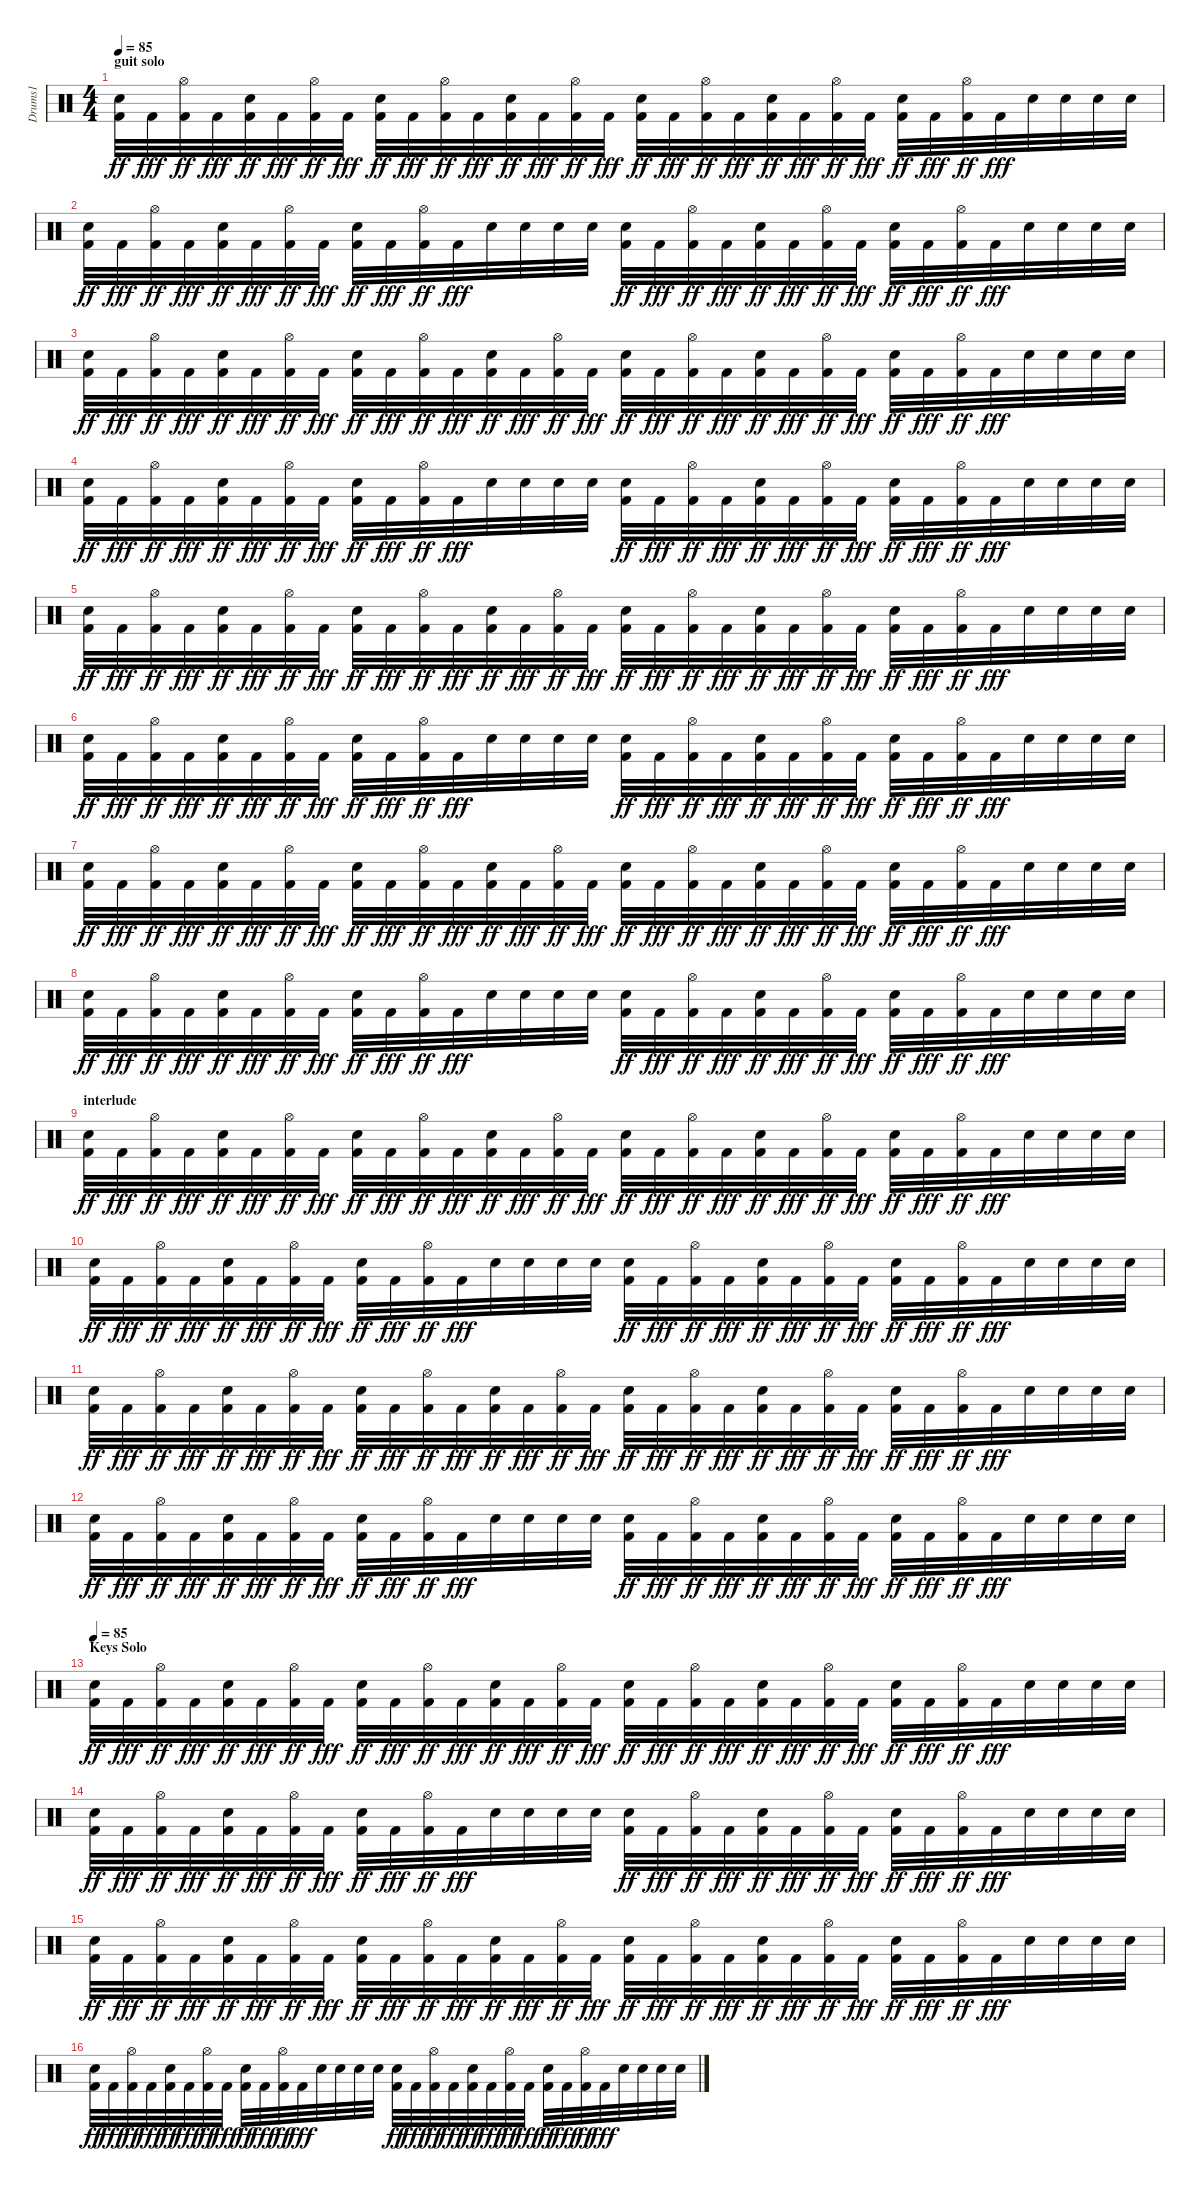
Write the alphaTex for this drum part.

\track ("Drums1" "Drums1") {instrument percussion}
\staff {score}
\articulation defaults
\ts (4 4)
\section ("" "guit solo")
\tempo 85
\clef neutral
\ks c
("Kick (hit) 2" "Electric Snare (hit)").32{dy ff} "Kick (hit) 2".32{dy fff} ("Kick (hit) 2" "Hi-Hat (open)").32{dy ff} "Kick (hit) 2".32{dy fff} ("Kick (hit) 2" "Electric Snare (hit)").32{dy ff} "Kick (hit) 2".32{dy fff} ("Kick (hit) 2" "Hi-Hat (open)").32{dy ff} "Kick (hit) 2".32{dy fff} ("Kick (hit) 2" "Electric Snare (hit)").32{dy ff} "Kick (hit) 2".32{dy fff} ("Kick (hit) 2" "Hi-Hat (open)").32{dy ff} "Kick (hit) 2".32{dy fff} ("Kick (hit) 2" "Electric Snare (hit)").32{dy ff} "Kick (hit) 2".32{dy fff} ("Kick (hit) 2" "Hi-Hat (open)").32{dy ff} "Kick (hit) 2".32{dy fff} ("Kick (hit) 2" "Electric Snare (hit)").32{dy ff} "Kick (hit) 2".32{dy fff} ("Kick (hit) 2" "Hi-Hat (open)").32{dy ff} "Kick (hit) 2".32{dy fff} ("Kick (hit) 2" "Electric Snare (hit)").32{dy ff} "Kick (hit) 2".32{dy fff} ("Kick (hit) 2" "Hi-Hat (open)").32{dy ff} "Kick (hit) 2".32{dy fff} ("Kick (hit) 2" "Electric Snare (hit)").32{dy ff} "Kick (hit) 2".32{dy fff} ("Kick (hit) 2" "Hi-Hat (open)").32{dy ff} "Kick (hit) 2".32{dy fff} "Electric Snare (hit)".32 "Electric Snare (hit)".32 "Electric Snare (hit)".32 "Electric Snare (hit)".32 |
("Kick (hit) 2" "Electric Snare (hit)").32{dy ff} "Kick (hit) 2".32{dy fff} ("Kick (hit) 2" "Hi-Hat (open)").32{dy ff} "Kick (hit) 2".32{dy fff} ("Kick (hit) 2" "Electric Snare (hit)").32{dy ff} "Kick (hit) 2".32{dy fff} ("Kick (hit) 2" "Hi-Hat (open)").32{dy ff} "Kick (hit) 2".32{dy fff} ("Kick (hit) 2" "Electric Snare (hit)").32{dy ff} "Kick (hit) 2".32{dy fff} ("Kick (hit) 2" "Hi-Hat (open)").32{dy ff} "Kick (hit) 2".32{dy fff} "Electric Snare (hit)".32 "Electric Snare (hit)".32 "Electric Snare (hit)".32 "Electric Snare (hit)".32 ("Kick (hit) 2" "Electric Snare (hit)").32{dy ff} "Kick (hit) 2".32{dy fff} ("Kick (hit) 2" "Hi-Hat (open)").32{dy ff} "Kick (hit) 2".32{dy fff} ("Kick (hit) 2" "Electric Snare (hit)").32{dy ff} "Kick (hit) 2".32{dy fff} ("Kick (hit) 2" "Hi-Hat (open)").32{dy ff} "Kick (hit) 2".32{dy fff} ("Kick (hit) 2" "Electric Snare (hit)").32{dy ff} "Kick (hit) 2".32{dy fff} ("Kick (hit) 2" "Hi-Hat (open)").32{dy ff} "Kick (hit) 2".32{dy fff} "Electric Snare (hit)".32 "Electric Snare (hit)".32 "Electric Snare (hit)".32 "Electric Snare (hit)".32 |
("Kick (hit) 2" "Electric Snare (hit)").32{dy ff} "Kick (hit) 2".32{dy fff} ("Kick (hit) 2" "Hi-Hat (open)").32{dy ff} "Kick (hit) 2".32{dy fff} ("Kick (hit) 2" "Electric Snare (hit)").32{dy ff} "Kick (hit) 2".32{dy fff} ("Kick (hit) 2" "Hi-Hat (open)").32{dy ff} "Kick (hit) 2".32{dy fff} ("Kick (hit) 2" "Electric Snare (hit)").32{dy ff} "Kick (hit) 2".32{dy fff} ("Kick (hit) 2" "Hi-Hat (open)").32{dy ff} "Kick (hit) 2".32{dy fff} ("Kick (hit) 2" "Electric Snare (hit)").32{dy ff} "Kick (hit) 2".32{dy fff} ("Kick (hit) 2" "Hi-Hat (open)").32{dy ff} "Kick (hit) 2".32{dy fff} ("Kick (hit) 2" "Electric Snare (hit)").32{dy ff} "Kick (hit) 2".32{dy fff} ("Kick (hit) 2" "Hi-Hat (open)").32{dy ff} "Kick (hit) 2".32{dy fff} ("Kick (hit) 2" "Electric Snare (hit)").32{dy ff} "Kick (hit) 2".32{dy fff} ("Kick (hit) 2" "Hi-Hat (open)").32{dy ff} "Kick (hit) 2".32{dy fff} ("Kick (hit) 2" "Electric Snare (hit)").32{dy ff} "Kick (hit) 2".32{dy fff} ("Kick (hit) 2" "Hi-Hat (open)").32{dy ff} "Kick (hit) 2".32{dy fff} "Electric Snare (hit)".32 "Electric Snare (hit)".32 "Electric Snare (hit)".32 "Electric Snare (hit)".32 |
("Kick (hit) 2" "Electric Snare (hit)").32{dy ff} "Kick (hit) 2".32{dy fff} ("Kick (hit) 2" "Hi-Hat (open)").32{dy ff} "Kick (hit) 2".32{dy fff} ("Kick (hit) 2" "Electric Snare (hit)").32{dy ff} "Kick (hit) 2".32{dy fff} ("Kick (hit) 2" "Hi-Hat (open)").32{dy ff} "Kick (hit) 2".32{dy fff} ("Kick (hit) 2" "Electric Snare (hit)").32{dy ff} "Kick (hit) 2".32{dy fff} ("Kick (hit) 2" "Hi-Hat (open)").32{dy ff} "Kick (hit) 2".32{dy fff} "Electric Snare (hit)".32 "Electric Snare (hit)".32 "Electric Snare (hit)".32 "Electric Snare (hit)".32 ("Kick (hit) 2" "Electric Snare (hit)").32{dy ff} "Kick (hit) 2".32{dy fff} ("Kick (hit) 2" "Hi-Hat (open)").32{dy ff} "Kick (hit) 2".32{dy fff} ("Kick (hit) 2" "Electric Snare (hit)").32{dy ff} "Kick (hit) 2".32{dy fff} ("Kick (hit) 2" "Hi-Hat (open)").32{dy ff} "Kick (hit) 2".32{dy fff} ("Kick (hit) 2" "Electric Snare (hit)").32{dy ff} "Kick (hit) 2".32{dy fff} ("Kick (hit) 2" "Hi-Hat (open)").32{dy ff} "Kick (hit) 2".32{dy fff} "Electric Snare (hit)".32 "Electric Snare (hit)".32 "Electric Snare (hit)".32 "Electric Snare (hit)".32 |
("Kick (hit) 2" "Electric Snare (hit)").32{dy ff} "Kick (hit) 2".32{dy fff} ("Kick (hit) 2" "Hi-Hat (open)").32{dy ff} "Kick (hit) 2".32{dy fff} ("Kick (hit) 2" "Electric Snare (hit)").32{dy ff} "Kick (hit) 2".32{dy fff} ("Kick (hit) 2" "Hi-Hat (open)").32{dy ff} "Kick (hit) 2".32{dy fff} ("Kick (hit) 2" "Electric Snare (hit)").32{dy ff} "Kick (hit) 2".32{dy fff} ("Kick (hit) 2" "Hi-Hat (open)").32{dy ff} "Kick (hit) 2".32{dy fff} ("Kick (hit) 2" "Electric Snare (hit)").32{dy ff} "Kick (hit) 2".32{dy fff} ("Kick (hit) 2" "Hi-Hat (open)").32{dy ff} "Kick (hit) 2".32{dy fff} ("Kick (hit) 2" "Electric Snare (hit)").32{dy ff} "Kick (hit) 2".32{dy fff} ("Kick (hit) 2" "Hi-Hat (open)").32{dy ff} "Kick (hit) 2".32{dy fff} ("Kick (hit) 2" "Electric Snare (hit)").32{dy ff} "Kick (hit) 2".32{dy fff} ("Kick (hit) 2" "Hi-Hat (open)").32{dy ff} "Kick (hit) 2".32{dy fff} ("Kick (hit) 2" "Electric Snare (hit)").32{dy ff} "Kick (hit) 2".32{dy fff} ("Kick (hit) 2" "Hi-Hat (open)").32{dy ff} "Kick (hit) 2".32{dy fff} "Electric Snare (hit)".32 "Electric Snare (hit)".32 "Electric Snare (hit)".32 "Electric Snare (hit)".32 |
("Kick (hit) 2" "Electric Snare (hit)").32{dy ff} "Kick (hit) 2".32{dy fff} ("Kick (hit) 2" "Hi-Hat (open)").32{dy ff} "Kick (hit) 2".32{dy fff} ("Kick (hit) 2" "Electric Snare (hit)").32{dy ff} "Kick (hit) 2".32{dy fff} ("Kick (hit) 2" "Hi-Hat (open)").32{dy ff} "Kick (hit) 2".32{dy fff} ("Kick (hit) 2" "Electric Snare (hit)").32{dy ff} "Kick (hit) 2".32{dy fff} ("Kick (hit) 2" "Hi-Hat (open)").32{dy ff} "Kick (hit) 2".32{dy fff} "Electric Snare (hit)".32 "Electric Snare (hit)".32 "Electric Snare (hit)".32 "Electric Snare (hit)".32 ("Kick (hit) 2" "Electric Snare (hit)").32{dy ff} "Kick (hit) 2".32{dy fff} ("Kick (hit) 2" "Hi-Hat (open)").32{dy ff} "Kick (hit) 2".32{dy fff} ("Kick (hit) 2" "Electric Snare (hit)").32{dy ff} "Kick (hit) 2".32{dy fff} ("Kick (hit) 2" "Hi-Hat (open)").32{dy ff} "Kick (hit) 2".32{dy fff} ("Kick (hit) 2" "Electric Snare (hit)").32{dy ff} "Kick (hit) 2".32{dy fff} ("Kick (hit) 2" "Hi-Hat (open)").32{dy ff} "Kick (hit) 2".32{dy fff} "Electric Snare (hit)".32 "Electric Snare (hit)".32 "Electric Snare (hit)".32 "Electric Snare (hit)".32 |
("Kick (hit) 2" "Electric Snare (hit)").32{dy ff} "Kick (hit) 2".32{dy fff} ("Kick (hit) 2" "Hi-Hat (open)").32{dy ff} "Kick (hit) 2".32{dy fff} ("Kick (hit) 2" "Electric Snare (hit)").32{dy ff} "Kick (hit) 2".32{dy fff} ("Kick (hit) 2" "Hi-Hat (open)").32{dy ff} "Kick (hit) 2".32{dy fff} ("Kick (hit) 2" "Electric Snare (hit)").32{dy ff} "Kick (hit) 2".32{dy fff} ("Kick (hit) 2" "Hi-Hat (open)").32{dy ff} "Kick (hit) 2".32{dy fff} ("Kick (hit) 2" "Electric Snare (hit)").32{dy ff} "Kick (hit) 2".32{dy fff} ("Kick (hit) 2" "Hi-Hat (open)").32{dy ff} "Kick (hit) 2".32{dy fff} ("Kick (hit) 2" "Electric Snare (hit)").32{dy ff} "Kick (hit) 2".32{dy fff} ("Kick (hit) 2" "Hi-Hat (open)").32{dy ff} "Kick (hit) 2".32{dy fff} ("Kick (hit) 2" "Electric Snare (hit)").32{dy ff} "Kick (hit) 2".32{dy fff} ("Kick (hit) 2" "Hi-Hat (open)").32{dy ff} "Kick (hit) 2".32{dy fff} ("Kick (hit) 2" "Electric Snare (hit)").32{dy ff} "Kick (hit) 2".32{dy fff} ("Kick (hit) 2" "Hi-Hat (open)").32{dy ff} "Kick (hit) 2".32{dy fff} "Electric Snare (hit)".32 "Electric Snare (hit)".32 "Electric Snare (hit)".32 "Electric Snare (hit)".32 |
("Kick (hit) 2" "Electric Snare (hit)").32{dy ff} "Kick (hit) 2".32{dy fff} ("Kick (hit) 2" "Hi-Hat (open)").32{dy ff} "Kick (hit) 2".32{dy fff} ("Kick (hit) 2" "Electric Snare (hit)").32{dy ff} "Kick (hit) 2".32{dy fff} ("Kick (hit) 2" "Hi-Hat (open)").32{dy ff} "Kick (hit) 2".32{dy fff} ("Kick (hit) 2" "Electric Snare (hit)").32{dy ff} "Kick (hit) 2".32{dy fff} ("Kick (hit) 2" "Hi-Hat (open)").32{dy ff} "Kick (hit) 2".32{dy fff} "Electric Snare (hit)".32 "Electric Snare (hit)".32 "Electric Snare (hit)".32 "Electric Snare (hit)".32 ("Kick (hit) 2" "Electric Snare (hit)").32{dy ff} "Kick (hit) 2".32{dy fff} ("Kick (hit) 2" "Hi-Hat (open)").32{dy ff} "Kick (hit) 2".32{dy fff} ("Kick (hit) 2" "Electric Snare (hit)").32{dy ff} "Kick (hit) 2".32{dy fff} ("Kick (hit) 2" "Hi-Hat (open)").32{dy ff} "Kick (hit) 2".32{dy fff} ("Kick (hit) 2" "Electric Snare (hit)").32{dy ff} "Kick (hit) 2".32{dy fff} ("Kick (hit) 2" "Hi-Hat (open)").32{dy ff} "Kick (hit) 2".32{dy fff} "Electric Snare (hit)".32 "Electric Snare (hit)".32 "Electric Snare (hit)".32 "Electric Snare (hit)".32 |
\section ("" "interlude")
("Kick (hit) 2" "Electric Snare (hit)").32{dy ff} "Kick (hit) 2".32{dy fff} ("Kick (hit) 2" "Hi-Hat (open)").32{dy ff} "Kick (hit) 2".32{dy fff} ("Kick (hit) 2" "Electric Snare (hit)").32{dy ff} "Kick (hit) 2".32{dy fff} ("Kick (hit) 2" "Hi-Hat (open)").32{dy ff} "Kick (hit) 2".32{dy fff} ("Kick (hit) 2" "Electric Snare (hit)").32{dy ff} "Kick (hit) 2".32{dy fff} ("Kick (hit) 2" "Hi-Hat (open)").32{dy ff} "Kick (hit) 2".32{dy fff} ("Kick (hit) 2" "Electric Snare (hit)").32{dy ff} "Kick (hit) 2".32{dy fff} ("Kick (hit) 2" "Hi-Hat (open)").32{dy ff} "Kick (hit) 2".32{dy fff} ("Kick (hit) 2" "Electric Snare (hit)").32{dy ff} "Kick (hit) 2".32{dy fff} ("Kick (hit) 2" "Hi-Hat (open)").32{dy ff} "Kick (hit) 2".32{dy fff} ("Kick (hit) 2" "Electric Snare (hit)").32{dy ff} "Kick (hit) 2".32{dy fff} ("Kick (hit) 2" "Hi-Hat (open)").32{dy ff} "Kick (hit) 2".32{dy fff} ("Kick (hit) 2" "Electric Snare (hit)").32{dy ff} "Kick (hit) 2".32{dy fff} ("Kick (hit) 2" "Hi-Hat (open)").32{dy ff} "Kick (hit) 2".32{dy fff} "Electric Snare (hit)".32 "Electric Snare (hit)".32 "Electric Snare (hit)".32 "Electric Snare (hit)".32 |
("Kick (hit) 2" "Electric Snare (hit)").32{dy ff} "Kick (hit) 2".32{dy fff} ("Kick (hit) 2" "Hi-Hat (open)").32{dy ff} "Kick (hit) 2".32{dy fff} ("Kick (hit) 2" "Electric Snare (hit)").32{dy ff} "Kick (hit) 2".32{dy fff} ("Kick (hit) 2" "Hi-Hat (open)").32{dy ff} "Kick (hit) 2".32{dy fff} ("Kick (hit) 2" "Electric Snare (hit)").32{dy ff} "Kick (hit) 2".32{dy fff} ("Kick (hit) 2" "Hi-Hat (open)").32{dy ff} "Kick (hit) 2".32{dy fff} "Electric Snare (hit)".32 "Electric Snare (hit)".32 "Electric Snare (hit)".32 "Electric Snare (hit)".32 ("Kick (hit) 2" "Electric Snare (hit)").32{dy ff} "Kick (hit) 2".32{dy fff} ("Kick (hit) 2" "Hi-Hat (open)").32{dy ff} "Kick (hit) 2".32{dy fff} ("Kick (hit) 2" "Electric Snare (hit)").32{dy ff} "Kick (hit) 2".32{dy fff} ("Kick (hit) 2" "Hi-Hat (open)").32{dy ff} "Kick (hit) 2".32{dy fff} ("Kick (hit) 2" "Electric Snare (hit)").32{dy ff} "Kick (hit) 2".32{dy fff} ("Kick (hit) 2" "Hi-Hat (open)").32{dy ff} "Kick (hit) 2".32{dy fff} "Electric Snare (hit)".32 "Electric Snare (hit)".32 "Electric Snare (hit)".32 "Electric Snare (hit)".32 |
("Kick (hit) 2" "Electric Snare (hit)").32{dy ff} "Kick (hit) 2".32{dy fff} ("Kick (hit) 2" "Hi-Hat (open)").32{dy ff} "Kick (hit) 2".32{dy fff} ("Kick (hit) 2" "Electric Snare (hit)").32{dy ff} "Kick (hit) 2".32{dy fff} ("Kick (hit) 2" "Hi-Hat (open)").32{dy ff} "Kick (hit) 2".32{dy fff} ("Kick (hit) 2" "Electric Snare (hit)").32{dy ff} "Kick (hit) 2".32{dy fff} ("Kick (hit) 2" "Hi-Hat (open)").32{dy ff} "Kick (hit) 2".32{dy fff} ("Kick (hit) 2" "Electric Snare (hit)").32{dy ff} "Kick (hit) 2".32{dy fff} ("Kick (hit) 2" "Hi-Hat (open)").32{dy ff} "Kick (hit) 2".32{dy fff} ("Kick (hit) 2" "Electric Snare (hit)").32{dy ff} "Kick (hit) 2".32{dy fff} ("Kick (hit) 2" "Hi-Hat (open)").32{dy ff} "Kick (hit) 2".32{dy fff} ("Kick (hit) 2" "Electric Snare (hit)").32{dy ff} "Kick (hit) 2".32{dy fff} ("Kick (hit) 2" "Hi-Hat (open)").32{dy ff} "Kick (hit) 2".32{dy fff} ("Kick (hit) 2" "Electric Snare (hit)").32{dy ff} "Kick (hit) 2".32{dy fff} ("Kick (hit) 2" "Hi-Hat (open)").32{dy ff} "Kick (hit) 2".32{dy fff} "Electric Snare (hit)".32 "Electric Snare (hit)".32 "Electric Snare (hit)".32 "Electric Snare (hit)".32 |
("Kick (hit) 2" "Electric Snare (hit)").32{dy ff} "Kick (hit) 2".32{dy fff} ("Kick (hit) 2" "Hi-Hat (open)").32{dy ff} "Kick (hit) 2".32{dy fff} ("Kick (hit) 2" "Electric Snare (hit)").32{dy ff} "Kick (hit) 2".32{dy fff} ("Kick (hit) 2" "Hi-Hat (open)").32{dy ff} "Kick (hit) 2".32{dy fff} ("Kick (hit) 2" "Electric Snare (hit)").32{dy ff} "Kick (hit) 2".32{dy fff} ("Kick (hit) 2" "Hi-Hat (open)").32{dy ff} "Kick (hit) 2".32{dy fff} "Electric Snare (hit)".32 "Electric Snare (hit)".32 "Electric Snare (hit)".32 "Electric Snare (hit)".32 ("Kick (hit) 2" "Electric Snare (hit)").32{dy ff} "Kick (hit) 2".32{dy fff} ("Kick (hit) 2" "Hi-Hat (open)").32{dy ff} "Kick (hit) 2".32{dy fff} ("Kick (hit) 2" "Electric Snare (hit)").32{dy ff} "Kick (hit) 2".32{dy fff} ("Kick (hit) 2" "Hi-Hat (open)").32{dy ff} "Kick (hit) 2".32{dy fff} ("Kick (hit) 2" "Electric Snare (hit)").32{dy ff} "Kick (hit) 2".32{dy fff} ("Kick (hit) 2" "Hi-Hat (open)").32{dy ff} "Kick (hit) 2".32{dy fff} "Electric Snare (hit)".32 "Electric Snare (hit)".32 "Electric Snare (hit)".32 "Electric Snare (hit)".32 |
\section ("" "Keys Solo")
\tempo 85
("Kick (hit) 2" "Electric Snare (hit)").32{dy ff} "Kick (hit) 2".32{dy fff} ("Kick (hit) 2" "Hi-Hat (open)").32{dy ff} "Kick (hit) 2".32{dy fff} ("Kick (hit) 2" "Electric Snare (hit)").32{dy ff} "Kick (hit) 2".32{dy fff} ("Kick (hit) 2" "Hi-Hat (open)").32{dy ff} "Kick (hit) 2".32{dy fff} ("Kick (hit) 2" "Electric Snare (hit)").32{dy ff} "Kick (hit) 2".32{dy fff} ("Kick (hit) 2" "Hi-Hat (open)").32{dy ff} "Kick (hit) 2".32{dy fff} ("Kick (hit) 2" "Electric Snare (hit)").32{dy ff} "Kick (hit) 2".32{dy fff} ("Kick (hit) 2" "Hi-Hat (open)").32{dy ff} "Kick (hit) 2".32{dy fff} ("Kick (hit) 2" "Electric Snare (hit)").32{dy ff} "Kick (hit) 2".32{dy fff} ("Kick (hit) 2" "Hi-Hat (open)").32{dy ff} "Kick (hit) 2".32{dy fff} ("Kick (hit) 2" "Electric Snare (hit)").32{dy ff} "Kick (hit) 2".32{dy fff} ("Kick (hit) 2" "Hi-Hat (open)").32{dy ff} "Kick (hit) 2".32{dy fff} ("Kick (hit) 2" "Electric Snare (hit)").32{dy ff} "Kick (hit) 2".32{dy fff} ("Kick (hit) 2" "Hi-Hat (open)").32{dy ff} "Kick (hit) 2".32{dy fff} "Electric Snare (hit)".32 "Electric Snare (hit)".32 "Electric Snare (hit)".32 "Electric Snare (hit)".32 |
("Kick (hit) 2" "Electric Snare (hit)").32{dy ff} "Kick (hit) 2".32{dy fff} ("Kick (hit) 2" "Hi-Hat (open)").32{dy ff} "Kick (hit) 2".32{dy fff} ("Kick (hit) 2" "Electric Snare (hit)").32{dy ff} "Kick (hit) 2".32{dy fff} ("Kick (hit) 2" "Hi-Hat (open)").32{dy ff} "Kick (hit) 2".32{dy fff} ("Kick (hit) 2" "Electric Snare (hit)").32{dy ff} "Kick (hit) 2".32{dy fff} ("Kick (hit) 2" "Hi-Hat (open)").32{dy ff} "Kick (hit) 2".32{dy fff} "Electric Snare (hit)".32 "Electric Snare (hit)".32 "Electric Snare (hit)".32 "Electric Snare (hit)".32 ("Kick (hit) 2" "Electric Snare (hit)").32{dy ff} "Kick (hit) 2".32{dy fff} ("Kick (hit) 2" "Hi-Hat (open)").32{dy ff} "Kick (hit) 2".32{dy fff} ("Kick (hit) 2" "Electric Snare (hit)").32{dy ff} "Kick (hit) 2".32{dy fff} ("Kick (hit) 2" "Hi-Hat (open)").32{dy ff} "Kick (hit) 2".32{dy fff} ("Kick (hit) 2" "Electric Snare (hit)").32{dy ff} "Kick (hit) 2".32{dy fff} ("Kick (hit) 2" "Hi-Hat (open)").32{dy ff} "Kick (hit) 2".32{dy fff} "Electric Snare (hit)".32 "Electric Snare (hit)".32 "Electric Snare (hit)".32 "Electric Snare (hit)".32 |
("Kick (hit) 2" "Electric Snare (hit)").32{dy ff} "Kick (hit) 2".32{dy fff} ("Kick (hit) 2" "Hi-Hat (open)").32{dy ff} "Kick (hit) 2".32{dy fff} ("Kick (hit) 2" "Electric Snare (hit)").32{dy ff} "Kick (hit) 2".32{dy fff} ("Kick (hit) 2" "Hi-Hat (open)").32{dy ff} "Kick (hit) 2".32{dy fff} ("Kick (hit) 2" "Electric Snare (hit)").32{dy ff} "Kick (hit) 2".32{dy fff} ("Kick (hit) 2" "Hi-Hat (open)").32{dy ff} "Kick (hit) 2".32{dy fff} ("Kick (hit) 2" "Electric Snare (hit)").32{dy ff} "Kick (hit) 2".32{dy fff} ("Kick (hit) 2" "Hi-Hat (open)").32{dy ff} "Kick (hit) 2".32{dy fff} ("Kick (hit) 2" "Electric Snare (hit)").32{dy ff} "Kick (hit) 2".32{dy fff} ("Kick (hit) 2" "Hi-Hat (open)").32{dy ff} "Kick (hit) 2".32{dy fff} ("Kick (hit) 2" "Electric Snare (hit)").32{dy ff} "Kick (hit) 2".32{dy fff} ("Kick (hit) 2" "Hi-Hat (open)").32{dy ff} "Kick (hit) 2".32{dy fff} ("Kick (hit) 2" "Electric Snare (hit)").32{dy ff} "Kick (hit) 2".32{dy fff} ("Kick (hit) 2" "Hi-Hat (open)").32{dy ff} "Kick (hit) 2".32{dy fff} "Electric Snare (hit)".32 "Electric Snare (hit)".32 "Electric Snare (hit)".32 "Electric Snare (hit)".32 |
("Kick (hit) 2" "Electric Snare (hit)").32{dy ff} "Kick (hit) 2".32{dy fff} ("Kick (hit) 2" "Hi-Hat (open)").32{dy ff} "Kick (hit) 2".32{dy fff} ("Kick (hit) 2" "Electric Snare (hit)").32{dy ff} "Kick (hit) 2".32{dy fff} ("Kick (hit) 2" "Hi-Hat (open)").32{dy ff} "Kick (hit) 2".32{dy fff} ("Kick (hit) 2" "Electric Snare (hit)").32{dy ff} "Kick (hit) 2".32{dy fff} ("Kick (hit) 2" "Hi-Hat (open)").32{dy ff} "Kick (hit) 2".32{dy fff} "Electric Snare (hit)".32 "Electric Snare (hit)".32 "Electric Snare (hit)".32 "Electric Snare (hit)".32 ("Kick (hit) 2" "Electric Snare (hit)").32{dy ff} "Kick (hit) 2".32{dy fff} ("Kick (hit) 2" "Hi-Hat (open)").32{dy ff} "Kick (hit) 2".32{dy fff} ("Kick (hit) 2" "Electric Snare (hit)").32{dy ff} "Kick (hit) 2".32{dy fff} ("Kick (hit) 2" "Hi-Hat (open)").32{dy ff} "Kick (hit) 2".32{dy fff} ("Kick (hit) 2" "Electric Snare (hit)").32{dy ff} "Kick (hit) 2".32{dy fff} ("Kick (hit) 2" "Hi-Hat (open)").32{dy ff} "Kick (hit) 2".32{dy fff} "Electric Snare (hit)".32 "Electric Snare (hit)".32 "Electric Snare (hit)".32 "Electric Snare (hit)".32
